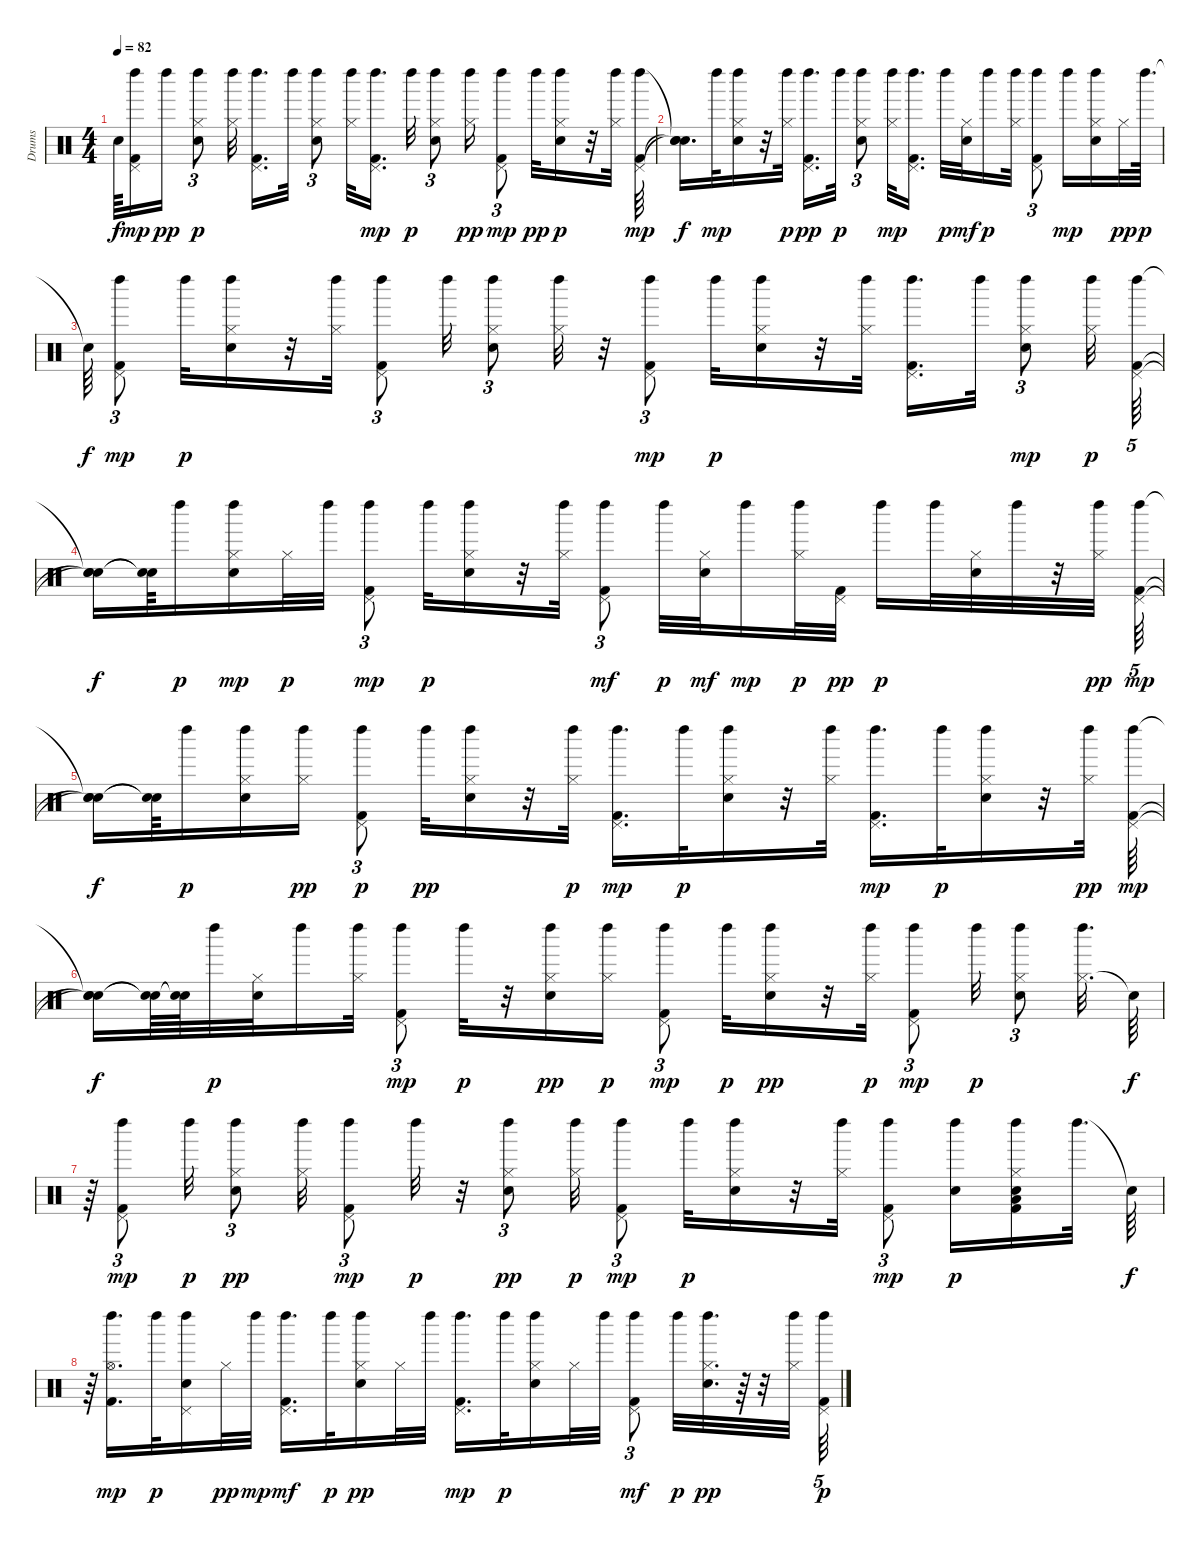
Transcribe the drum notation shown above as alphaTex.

\track ("Drums" "Drums") {instrument percussion}
\staff {score}
\articulation defaults
\ts (4 4)
\tempo 82
\clef neutral
\ks c "Snare (hit)"{t}.64{dy f}
("Pedal Hi-Hat (hit)" "Kick (hit) 2" "Left Maraca (hit)").16{dy mp} "Left Maraca (hit)".16{dy pp} ("Hi-Hat (closed)" "Hand Clap (hit)" "Left Maraca (hit)").8{tu (3 2) dy p} ("Left Maraca (hit)" "Hi-Hat (closed)").32 ("Pedal Hi-Hat (hit)" "Kick (hit) 2" "Left Maraca (hit)").16{d} "Left Maraca (hit)".32 ("Hi-Hat (closed)" "Hand Clap (hit)" "Left Maraca (hit)").8{tu (3 2)} ("Hi-Hat (closed)" "Left Maraca (hit)").32 ("Pedal Hi-Hat (hit)" "Kick (hit) 2" "Left Maraca (hit)").16{d dy mp} "Left Maraca (hit)".32{dy p} ("Hi-Hat (closed)" "Hand Clap (hit)" "Left Maraca (hit)").8{tu (3 2)} ("Left Maraca (hit)" "Hi-Hat (closed)").16{dy pp} ("Pedal Hi-Hat (hit)" "Kick (hit) 2" "Left Maraca (hit)").8{tu (3 2) dy mp} "Left Maraca (hit)".32{dy pp} ("Hi-Hat (closed)" "Hand Clap (hit)" "Left Maraca (hit)").16{dy p} r.32 ("Hi-Hat (closed)" "Left Maraca (hit)").32 ("Pedal Hi-Hat (hit)" "Kick (hit) 2" "Left Maraca (hit)").64{dy mp} |
("Snare (hit)"{t} "Snare (hit)"{t} "Snare (hit)"{t}).16{d dy f} "Left Maraca (hit)".32{dy mp} ("Hi-Hat (closed)" "Hand Clap (hit)" "Left Maraca (hit)").16 r.32 ("Left Maraca (hit)" "Hi-Hat (closed)").32{dy p} ("Kick (hit) 2" "Left Maraca (hit)" "Pedal Hi-Hat (hit)").16{d dy pp} "Left Maraca (hit)".32{dy p} ("Hi-Hat (closed)" "Hand Clap (hit)" "Left Maraca (hit)").8{tu (3 2)} ("Hi-Hat (closed)" "Left Maraca (hit)").32{dy mp} ("Pedal Hi-Hat (hit)" "Kick (hit) 2" "Left Maraca (hit)").16{d} "Left Maraca (hit)".32{dy p} ("Hi-Hat (closed)" "Hand Clap (hit)").32{dy mf} "Left Maraca (hit)".16{dy p} ("Hi-Hat (closed)" "Left Maraca (hit)").32 ("Pedal Hi-Hat (hit)" "Kick (hit) 2" "Left Maraca (hit)").8{tu (3 2)} "Left Maraca (hit)".16{dy mp} ("Hi-Hat (closed)" "Hand Clap (hit)" "Left Maraca (hit)").16 "Hi-Hat (closed)".32{dy pp} "Left Maraca (hit)".64{d dy p} |
"Snare (hit)"{t}.64{dy f} ("Pedal Hi-Hat (hit)" "Kick (hit) 2" "Left Maraca (hit)").8{tu (3 2) dy mp} "Left Maraca (hit)".32{dy p} ("Hi-Hat (closed)" "Hand Clap (hit)" "Left Maraca (hit)").16 r.32 ("Hi-Hat (closed)" "Left Maraca (hit)").32 ("Pedal Hi-Hat (hit)" "Kick (hit) 2" "Left Maraca (hit)").8{tu (3 2)} "Left Maraca (hit)".32 ("Hi-Hat (closed)" "Hand Clap (hit)" "Left Maraca (hit)").8{tu (3 2)} ("Hi-Hat (closed)" "Left Maraca (hit)").32 r.32 ("Pedal Hi-Hat (hit)" "Kick (hit) 2" "Left Maraca (hit)").8{tu (3 2) dy mp} "Left Maraca (hit)".32{dy p} ("Hi-Hat (closed)" "Hand Clap (hit)" "Left Maraca (hit)").16 r.32 ("Hi-Hat (closed)" "Left Maraca (hit)").32 ("Pedal Hi-Hat (hit)" "Kick (hit) 2" "Left Maraca (hit)").16{d} "Left Maraca (hit)".32 ("Hi-Hat (closed)" "Hand Clap (hit)" "Left Maraca (hit)").8{tu (3 2) dy mp} ("Left Maraca (hit)" "Hi-Hat (closed)").32{dy p} ("Pedal Hi-Hat (hit)" "Kick (hit) 2" "Left Maraca (hit)").64{tu (5 4)} |
("Snare (hit)"{t} "Snare (hit)"{t} "Snare (hit)"{t}).16{dy f} ("Snare (hit)"{t} "Snare (hit)"{t}).64 "Left Maraca (hit)".16{dy p} ("Hi-Hat (closed)" "Hand Clap (hit)" "Left Maraca (hit)").16{dy mp} "Hi-Hat (closed)".32{dy p} "Left Maraca (hit)".32 ("Pedal Hi-Hat (hit)" "Kick (hit) 2" "Left Maraca (hit)").8{tu (3 2) dy mp} "Left Maraca (hit)".32{dy p} ("Hi-Hat (closed)" "Hand Clap (hit)" "Left Maraca (hit)").16 r.32 ("Hi-Hat (closed)" "Left Maraca (hit)").32 ("Pedal Hi-Hat (hit)" "Kick (hit) 2" "Left Maraca (hit)").8{tu (3 2) dy mf} "Left Maraca (hit)".32{dy p} ("Hi-Hat (closed)" "Hand Clap (hit)").32{dy mf} "Left Maraca (hit)".16{dy mp} ("Hi-Hat (closed)" "Left Maraca (hit)").32{dy p} ("Pedal Hi-Hat (hit)" "Kick (hit) 2").32{dy pp} "Left Maraca (hit)".16{dy p} "Left Maraca (hit)".32 ("Hi-Hat (closed)" "Hand Clap (hit)").32 "Left Maraca (hit)".32 r.32 ("Left Maraca (hit)" "Hi-Hat (closed)").32{dy pp} ("Pedal Hi-Hat (hit)" "Kick (hit) 2" "Left Maraca (hit)").64{tu (5 4) dy mp} |
("Snare (hit)"{t} "Snare (hit)"{t} "Snare (hit)"{t}).16{dy f} ("Snare (hit)"{t} "Snare (hit)"{t}).64 "Left Maraca (hit)".16{dy p} ("Hi-Hat (closed)" "Hand Clap (hit)" "Left Maraca (hit)").16 ("Left Maraca (hit)" "Hi-Hat (closed)").16{dy pp} ("Pedal Hi-Hat (hit)" "Kick (hit) 2" "Left Maraca (hit)").8{tu (3 2) dy p} "Left Maraca (hit)".32{dy pp} ("Hi-Hat (closed)" "Hand Clap (hit)" "Left Maraca (hit)").16 r.32 ("Hi-Hat (closed)" "Left Maraca (hit)").32{dy p} ("Pedal Hi-Hat (hit)" "Kick (hit) 2" "Left Maraca (hit)").16{d dy mp} "Left Maraca (hit)".32{dy p} ("Hi-Hat (closed)" "Hand Clap (hit)" "Left Maraca (hit)").16 r.32 ("Hi-Hat (closed)" "Left Maraca (hit)").32 ("Pedal Hi-Hat (hit)" "Kick (hit) 2" "Left Maraca (hit)").16{d dy mp} "Left Maraca (hit)".32{dy p} ("Hi-Hat (closed)" "Hand Clap (hit)" "Left Maraca (hit)").16 r.32 ("Hi-Hat (closed)" "Left Maraca (hit)").32{dy pp} ("Pedal Hi-Hat (hit)" "Kick (hit) 2" "Left Maraca (hit)").64{dy mp} |
("Snare (hit)"{t} "Snare (hit)"{t} "Snare (hit)"{t}).16{dy f} ("Snare (hit)"{t} "Snare (hit)"{t}).64 ("Snare (hit)"{t} "Snare (hit)"{t}).64 "Left Maraca (hit)".32{dy p} ("Hi-Hat (closed)" "Hand Clap (hit)").32 "Left Maraca (hit)".16 ("Hi-Hat (closed)" "Left Maraca (hit)").32 ("Pedal Hi-Hat (hit)" "Kick (hit) 2" "Left Maraca (hit)").8{tu (3 2) dy mp} "Left Maraca (hit)".32{dy p} r.32 ("Hi-Hat (closed)" "Hand Clap (hit)" "Left Maraca (hit)").16{dy pp} ("Left Maraca (hit)" "Hi-Hat (closed)").16{dy p} ("Pedal Hi-Hat (hit)" "Kick (hit) 2" "Left Maraca (hit)").8{tu (3 2) dy mp} "Left Maraca (hit)".32{dy p} ("Hi-Hat (closed)" "Hand Clap (hit)" "Left Maraca (hit)").16{dy pp} r.32 ("Hi-Hat (closed)" "Left Maraca (hit)").32{dy p} ("Pedal Hi-Hat (hit)" "Kick (hit) 2" "Left Maraca (hit)").8{tu (3 2) dy mp} "Left Maraca (hit)".32{dy p} ("Hi-Hat (closed)" "Hand Clap (hit)" "Left Maraca (hit)").8{tu (3 2)} ("Hi-Hat (closed)" "Left Maraca (hit)").32{d} "Snare (hit)"{t}.64{dy f} |
r.64 ("Pedal Hi-Hat (hit)" "Kick (hit) 2" "Left Maraca (hit)").8{tu (3 2) dy mp} "Left Maraca (hit)".32{dy p} ("Hi-Hat (closed)" "Hand Clap (hit)" "Left Maraca (hit)").8{tu (3 2) dy pp} ("Left Maraca (hit)" "Hi-Hat (closed)").32 ("Pedal Hi-Hat (hit)" "Kick (hit) 2" "Left Maraca (hit)").8{tu (3 2) dy mp} "Left Maraca (hit)".32{dy p} r.32 ("Hi-Hat (closed)" "Hand Clap (hit)" "Left Maraca (hit)").8{tu (3 2) dy pp} ("Left Maraca (hit)" "Hi-Hat (closed)").32{dy p} ("Pedal Hi-Hat (hit)" "Kick (hit) 2" "Left Maraca (hit)").8{tu (3 2) dy mp} "Left Maraca (hit)".32{dy p} ("Hi-Hat (closed)" "Hand Clap (hit)" "Left Maraca (hit)").16 r.32 ("Hi-Hat (closed)" "Left Maraca (hit)").32 ("Pedal Hi-Hat (hit)" "Kick (hit) 2" "Left Maraca (hit)").8{tu (3 2) dy mp} ("Hand Clap (hit)" "Left Maraca (hit)").16{dy p} ("Hi-Hat (closed)" "Low Tom (hit)" "Kick (hit) 2" "Hand Clap (hit)" "Left Maraca (hit)").16 "Left Maraca (hit)".32{d} "Snare (hit)"{t}.64{dy f} |
r.64 ("Kick (hit) 2" "Hi-Hat (open)" "Left Maraca (hit)").16{d dy mp} "Left Maraca (hit)".32{dy p} ("Hand Clap (hit)" "Pedal Hi-Hat (hit)" "Left Maraca (hit)").16 "Hi-Hat (closed)".32{dy pp} "Left Maraca (hit)".32{dy mp} ("Kick (hit) 2" "Pedal Hi-Hat (hit)" "Left Maraca (hit)").16{d dy mf} "Left Maraca (hit)".32{dy p} ("Hi-Hat (closed)" "Hand Clap (hit)" "Left Maraca (hit)").16{dy pp} "Hi-Hat (closed)".32 "Left Maraca (hit)".32 ("Pedal Hi-Hat (hit)" "Kick (hit) 2" "Left Maraca (hit)").16{d dy mp} "Left Maraca (hit)".32{dy p} ("Hi-Hat (closed)" "Hand Clap (hit)" "Left Maraca (hit)").16 "Hi-Hat (closed)".32 "Left Maraca (hit)".32 ("Pedal Hi-Hat (hit)" "Kick (hit) 2" "Left Maraca (hit)").8{tu (3 2) dy mf} "Left Maraca (hit)".32{dy p} ("Hi-Hat (closed)" "Hand Clap (hit)" "Left Maraca (hit)").32{d dy pp} r.64 r.32 ("Hi-Hat (closed)" "Left Maraca (hit)").32 ("Kick (hit) 2" "Left Maraca (hit)" "Pedal Hi-Hat (hit)").64{tu (5 4) dy p}
